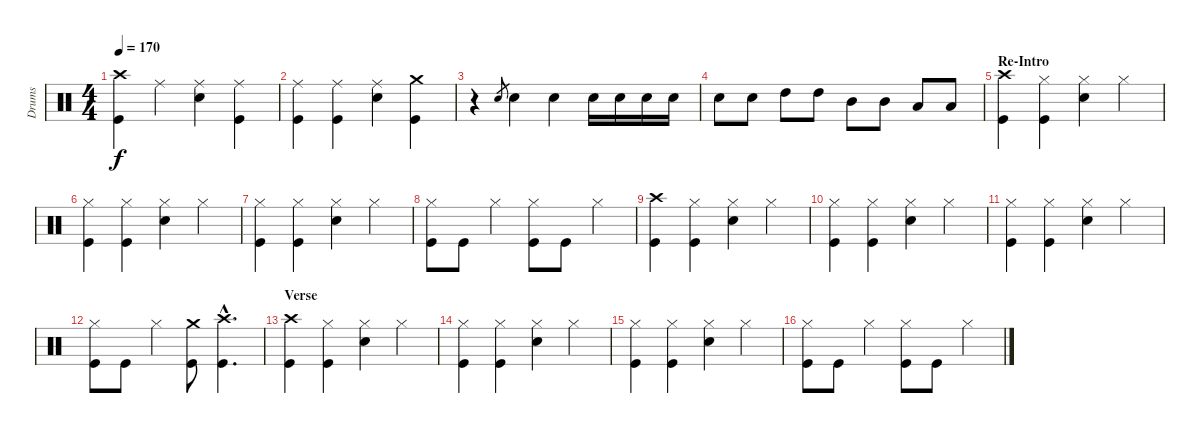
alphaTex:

\track ("Drums" "Drums") {instrument percussion}
\staff {score}
\articulation defaults
\ts (4 4)
\tempo 170
\clef neutral
\ks c
("Crash high (hit)" "Kick (hit)").4{dy f} "Ride (middle)".4 ("Ride (middle)" "Snare (hit) 2").4 ("Ride (middle)" "Kick (hit)").4 |
("Ride (middle)" "Kick (hit)").4 ("Ride (middle)" "Kick (hit)").4 ("Ride (middle)" "Snare (hit) 2").4 ("Crash medium (hit)" "Kick (hit)").4 |
r.4 "Snare (hit) 2".8{gr} "Snare (hit) 2".4 "Snare (hit) 2".4 "Snare (hit) 2".16 "Snare (hit) 2".16 "Snare (hit) 2".16 "Snare (hit) 2".16 |
"Snare (hit) 2".8 "Snare (hit) 2".8 "High Tom (hit)".8 "High Tom (hit)".8 "Mid Tom (hit)".8 "Mid Tom (hit)".8 "Low Tom (hit)".8 "Low Tom (hit)".8 |
\section ("" "Re-Intro")
("Crash high (hit)" "Kick (hit)").4 ("Hi-Hat (closed)" "Kick (hit)").4 ("Hi-Hat (closed)" "Snare (hit) 2").4 "Hi-Hat (closed)".4 |
("Hi-Hat (closed)" "Kick (hit)").4 ("Hi-Hat (closed)" "Kick (hit)").4 ("Hi-Hat (closed)" "Snare (hit) 2").4 "Hi-Hat (closed)".4 |
("Hi-Hat (closed)" "Kick (hit)").4 ("Hi-Hat (closed)" "Kick (hit)").4 ("Hi-Hat (closed)" "Snare (hit) 2").4 "Hi-Hat (closed)".4 |
("Hi-Hat (closed)" "Kick (hit)").8 "Kick (hit)".8 "Hi-Hat (closed)".4 ("Hi-Hat (closed)" "Kick (hit)").8 "Kick (hit)".8 "Hi-Hat (closed)".4 |
("Crash high (hit)" "Kick (hit)").4 ("Hi-Hat (closed)" "Kick (hit)").4 ("Hi-Hat (closed)" "Snare (hit) 2").4 "Hi-Hat (closed)".4 |
("Hi-Hat (closed)" "Kick (hit)").4 ("Hi-Hat (closed)" "Kick (hit)").4 ("Hi-Hat (closed)" "Snare (hit) 2").4 "Hi-Hat (closed)".4 |
("Hi-Hat (closed)" "Kick (hit)").4 ("Hi-Hat (closed)" "Kick (hit)").4 ("Hi-Hat (closed)" "Snare (hit) 2").4 "Hi-Hat (closed)".4 |
("Hi-Hat (closed)" "Kick (hit)").8 "Kick (hit)".8 "Hi-Hat (closed)".4 ("Crash medium (hit)" "Kick (hit)").8 ("Crash high (hit)"{hac} "Kick (hit)"{hac}).4{d} |
\section ("" "Verse")
("Crash high (hit)" "Kick (hit)").4 ("Hi-Hat (closed)" "Kick (hit)").4 ("Hi-Hat (closed)" "Snare (hit) 2").4 "Hi-Hat (closed)".4 |
("Hi-Hat (closed)" "Kick (hit)").4 ("Hi-Hat (closed)" "Kick (hit)").4 ("Hi-Hat (closed)" "Snare (hit) 2").4 "Hi-Hat (closed)".4 |
("Hi-Hat (closed)" "Kick (hit)").4 ("Hi-Hat (closed)" "Kick (hit)").4 ("Hi-Hat (closed)" "Snare (hit) 2").4 "Hi-Hat (closed)".4 |
("Hi-Hat (closed)" "Kick (hit)").8 "Kick (hit)".8 "Hi-Hat (closed)".4 ("Hi-Hat (closed)" "Kick (hit)").8 "Kick (hit)".8 "Hi-Hat (closed)".4
